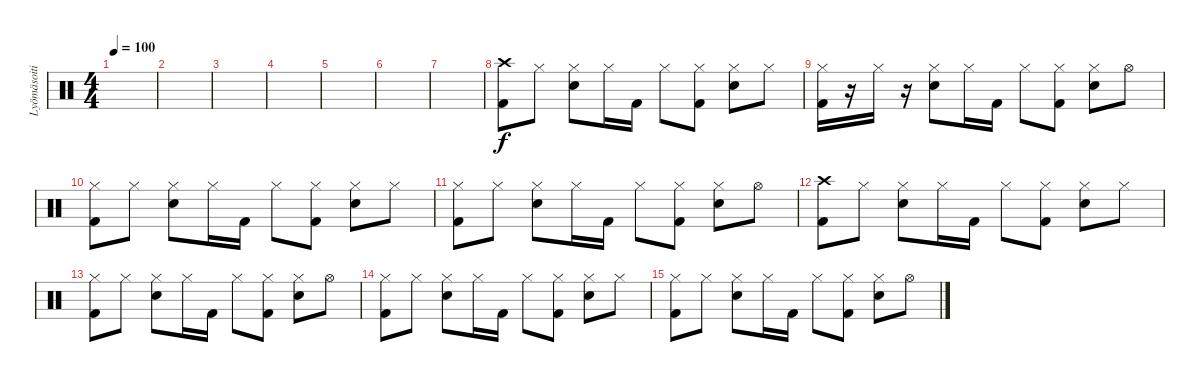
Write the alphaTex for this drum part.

\track ("Lyömäsoitin" "Lyömäsoiti") {instrument percussion}
\staff {score}
\articulation defaults
\ts (4 4)
\tempo 100
\clef neutral
\ks c
|
|
|
|
|
|
|
("Crash high (hit)" "Kick (hit) 2").8 "Hi-Hat (closed)".8 ("Hi-Hat (closed)" "Snare (hit) 2").8 "Hi-Hat (closed)".16 "Kick (hit) 2".16 "Hi-Hat (closed)".8 ("Hi-Hat (closed)" "Kick (hit) 2").8 ("Hi-Hat (closed)" "Snare (hit) 2").8 "Hi-Hat (closed)".8 |
("Hi-Hat (closed)" "Kick (hit) 2").16 r.16 "Hi-Hat (closed)".16 r.16 ("Hi-Hat (closed)" "Snare (hit) 2").8 "Hi-Hat (closed)".16 "Kick (hit) 2".16 "Hi-Hat (closed)".8 ("Hi-Hat (closed)" "Kick (hit) 2").8 ("Hi-Hat (closed)" "Snare (hit) 2").8 "Hi-Hat (open)".8 |
("Hi-Hat (closed)" "Kick (hit) 2").8 "Hi-Hat (closed)".8 ("Hi-Hat (closed)" "Snare (hit) 2").8 "Hi-Hat (closed)".16 "Kick (hit) 2".16 "Hi-Hat (closed)".8 ("Hi-Hat (closed)" "Kick (hit) 2").8 ("Hi-Hat (closed)" "Snare (hit) 2").8 "Hi-Hat (closed)".8 |
("Hi-Hat (closed)" "Kick (hit) 2").8 "Hi-Hat (closed)".8 ("Hi-Hat (closed)" "Snare (hit) 2").8 "Hi-Hat (closed)".16 "Kick (hit) 2".16 "Hi-Hat (closed)".8 ("Hi-Hat (closed)" "Kick (hit) 2").8 ("Hi-Hat (closed)" "Snare (hit) 2").8 "Hi-Hat (open)".8 |
("Crash high (hit)" "Kick (hit) 2").8 "Hi-Hat (closed)".8 ("Hi-Hat (closed)" "Snare (hit) 2").8 "Hi-Hat (closed)".16 "Kick (hit) 2".16 "Hi-Hat (closed)".8 ("Hi-Hat (closed)" "Kick (hit) 2").8 ("Hi-Hat (closed)" "Snare (hit) 2").8 "Hi-Hat (closed)".8 |
("Hi-Hat (closed)" "Kick (hit) 2").8 "Hi-Hat (closed)".8 ("Hi-Hat (closed)" "Snare (hit) 2").8 "Hi-Hat (closed)".16 "Kick (hit) 2".16 "Hi-Hat (closed)".8 ("Hi-Hat (closed)" "Kick (hit) 2").8 ("Hi-Hat (closed)" "Snare (hit) 2").8 "Hi-Hat (open)".8 |
("Hi-Hat (closed)" "Kick (hit) 2").8 "Hi-Hat (closed)".8 ("Hi-Hat (closed)" "Snare (hit) 2").8 "Hi-Hat (closed)".16 "Kick (hit) 2".16 "Hi-Hat (closed)".8 ("Hi-Hat (closed)" "Kick (hit) 2").8 ("Hi-Hat (closed)" "Snare (hit) 2").8 "Hi-Hat (closed)".8 |
("Hi-Hat (closed)" "Kick (hit) 2").8 "Hi-Hat (closed)".8 ("Hi-Hat (closed)" "Snare (hit) 2").8 "Hi-Hat (closed)".16 "Kick (hit) 2".16 "Hi-Hat (closed)".8 ("Hi-Hat (closed)" "Kick (hit) 2").8 ("Hi-Hat (closed)" "Snare (hit) 2").8 "Hi-Hat (open)".8
